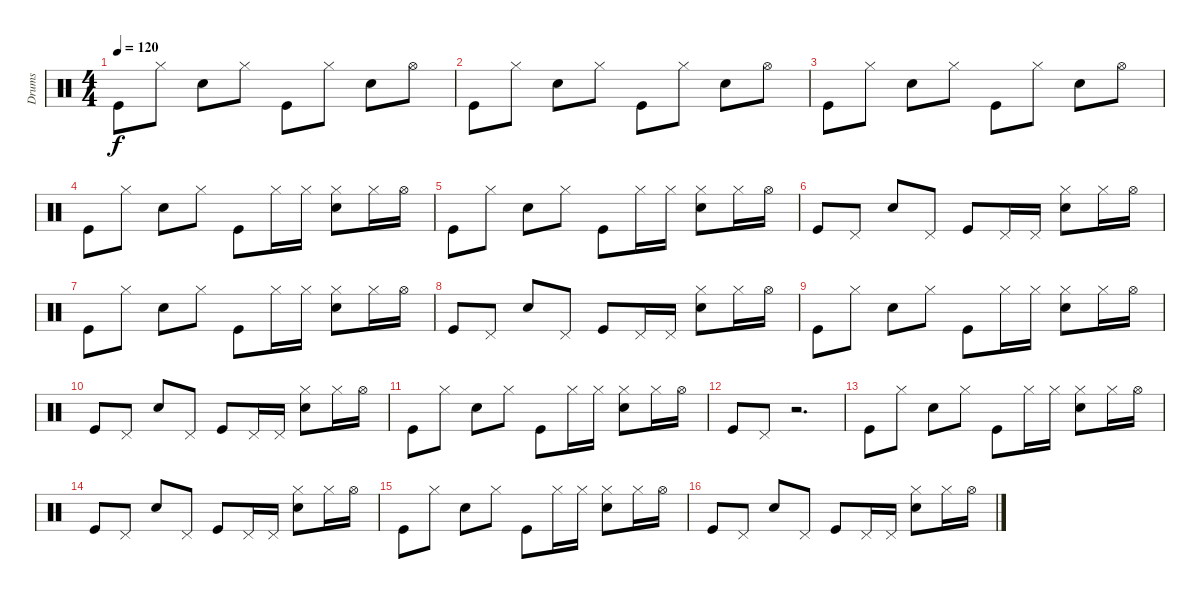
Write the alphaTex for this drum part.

\track ("Drums" "Drums") {instrument percussion}
\staff {score}
\articulation defaults
\ts (4 4)
\tempo 120
\clef neutral
\ks c "Kick (hit)".8{dy f} "Hi-Hat (closed)".8 "Snare (hit) 2".8 "Hi-Hat (closed)".8 "Kick (hit)".8 "Hi-Hat (closed)".8 "Snare (hit) 2".8 "Hi-Hat (open)".8
|
"Kick (hit)".8 "Hi-Hat (closed)".8 "Snare (hit) 2".8 "Hi-Hat (closed)".8 "Kick (hit)".8 "Hi-Hat (closed)".8 "Snare (hit) 2".8 "Hi-Hat (open)".8 |
"Kick (hit)".8 "Hi-Hat (closed)".8 "Snare (hit) 2".8 "Hi-Hat (closed)".8 "Kick (hit)".8 "Hi-Hat (closed)".8 "Snare (hit) 2".8 "Hi-Hat (open)".8 |
"Kick (hit)".8 "Hi-Hat (closed)".8 "Snare (hit) 2".8 "Hi-Hat (closed)".8 "Kick (hit)".8 "Hi-Hat (closed)".16 "Hi-Hat (closed)".16 ("Hi-Hat (closed)" "Snare (hit) 2").8 "Hi-Hat (closed)".16 "Hi-Hat (open)".16 |
"Kick (hit)".8 "Hi-Hat (closed)".8 "Snare (hit) 2".8 "Hi-Hat (closed)".8 "Kick (hit)".8 "Hi-Hat (closed)".16 "Hi-Hat (closed)".16 ("Hi-Hat (closed)" "Snare (hit) 2").8 "Hi-Hat (closed)".16 "Hi-Hat (open)".16 |
"Kick (hit)".8 "Pedal Hi-Hat (hit)".8 "Snare (hit) 2".8 "Pedal Hi-Hat (hit)".8 "Kick (hit)".8 "Pedal Hi-Hat (hit)".16 "Pedal Hi-Hat (hit)".16 ("Hi-Hat (closed)" "Snare (hit) 2").8 "Hi-Hat (closed)".16 "Hi-Hat (open)".16 |
"Kick (hit)".8 "Hi-Hat (closed)".8 "Snare (hit) 2".8 "Hi-Hat (closed)".8 "Kick (hit)".8 "Hi-Hat (closed)".16 "Hi-Hat (closed)".16 ("Hi-Hat (closed)" "Snare (hit) 2").8 "Hi-Hat (closed)".16 "Hi-Hat (open)".16 |
"Kick (hit)".8 "Pedal Hi-Hat (hit)".8 "Snare (hit) 2".8 "Pedal Hi-Hat (hit)".8 "Kick (hit)".8 "Pedal Hi-Hat (hit)".16 "Pedal Hi-Hat (hit)".16 ("Hi-Hat (closed)" "Snare (hit) 2").8 "Hi-Hat (closed)".16 "Hi-Hat (open)".16 |
"Kick (hit)".8 "Hi-Hat (closed)".8 "Snare (hit) 2".8 "Hi-Hat (closed)".8 "Kick (hit)".8 "Hi-Hat (closed)".16 "Hi-Hat (closed)".16 ("Hi-Hat (closed)" "Snare (hit) 2").8 "Hi-Hat (closed)".16 "Hi-Hat (open)".16 |
"Kick (hit)".8 "Pedal Hi-Hat (hit)".8 "Snare (hit) 2".8 "Pedal Hi-Hat (hit)".8 "Kick (hit)".8 "Pedal Hi-Hat (hit)".16 "Pedal Hi-Hat (hit)".16 ("Hi-Hat (closed)" "Snare (hit) 2").8 "Hi-Hat (closed)".16 "Hi-Hat (open)".16 |
"Kick (hit)".8 "Hi-Hat (closed)".8 "Snare (hit) 2".8 "Hi-Hat (closed)".8 "Kick (hit)".8 "Hi-Hat (closed)".16 "Hi-Hat (closed)".16 ("Hi-Hat (closed)" "Snare (hit) 2").8 "Hi-Hat (closed)".16 "Hi-Hat (open)".16 |
"Kick (hit)".8 "Pedal Hi-Hat (hit)".8 r.2{d} |
"Kick (hit)".8 "Hi-Hat (closed)".8 "Snare (hit) 2".8 "Hi-Hat (closed)".8 "Kick (hit)".8 "Hi-Hat (closed)".16 "Hi-Hat (closed)".16 ("Hi-Hat (closed)" "Snare (hit) 2").8 "Hi-Hat (closed)".16 "Hi-Hat (open)".16 |
"Kick (hit)".8 "Pedal Hi-Hat (hit)".8 "Snare (hit) 2".8 "Pedal Hi-Hat (hit)".8 "Kick (hit)".8 "Pedal Hi-Hat (hit)".16 "Pedal Hi-Hat (hit)".16 ("Hi-Hat (closed)" "Snare (hit) 2").8 "Hi-Hat (closed)".16 "Hi-Hat (open)".16 |
"Kick (hit)".8 "Hi-Hat (closed)".8 "Snare (hit) 2".8 "Hi-Hat (closed)".8 "Kick (hit)".8 "Hi-Hat (closed)".16 "Hi-Hat (closed)".16 ("Hi-Hat (closed)" "Snare (hit) 2").8 "Hi-Hat (closed)".16 "Hi-Hat (open)".16 |
"Kick (hit)".8 "Pedal Hi-Hat (hit)".8 "Snare (hit) 2".8 "Pedal Hi-Hat (hit)".8 "Kick (hit)".8 "Pedal Hi-Hat (hit)".16 "Pedal Hi-Hat (hit)".16 ("Hi-Hat (closed)" "Snare (hit) 2").8 "Hi-Hat (closed)".16 "Hi-Hat (open)".16
